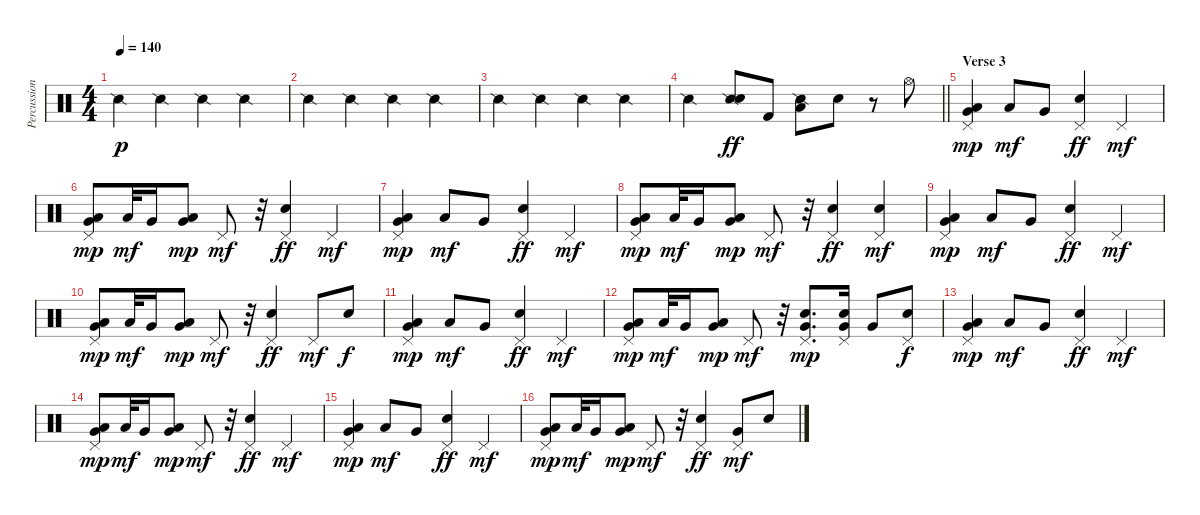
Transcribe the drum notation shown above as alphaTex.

\track ("Percussion" "Percussion") {instrument percussion}
\staff {score}
\articulation defaults
\ts (4 4)
\tempo 140
\clef neutral
\ks c "Snare (side stick) 2".4{dy p} "Snare (side stick) 2".4 "Snare (side stick) 2".4 "Snare (side stick) 2".4
|
"Snare (side stick) 2".4 "Snare (side stick) 2".4 "Snare (side stick) 2".4 "Snare (side stick) 2".4 |
"Snare (side stick) 2".4 "Snare (side stick) 2".4 "Snare (side stick) 2".4 "Snare (side stick) 2".4 |
\barLineRight lightlight "Snare (side stick) 2".4
("Snare (side stick) 2" "Snare (hit) 2").8{dy ff} "Kick (hit) 2".8 ("Snare (side stick) 2" "Low Floor Tom (hit)").8 "Snare (hit) 2".8 r.8 "Hi-Hat (open)".8 |
\section ("" "Verse 3")
("Pedal Hi-Hat (hit)" "Very Low Tom (hit)" "Low Floor Tom (hit)").4{dy mp} "Low Floor Tom (hit)".8{dy mf} "Very Low Tom (hit)".8 ("Pedal Hi-Hat (hit)" "Snare (hit) 2").4{dy ff} "Pedal Hi-Hat (hit)".4{dy mf} |
("Pedal Hi-Hat (hit)" "Very Low Tom (hit)" "Low Floor Tom (hit)").8{dy mp} "Low Floor Tom (hit)".32{dy mf} "Very Low Tom (hit)".16 ("Very Low Tom (hit)" "Low Floor Tom (hit)").8{dy mp} "Pedal Hi-Hat (hit)".8{dy mf} r.32 ("Pedal Hi-Hat (hit)" "Snare (hit) 2").4{dy ff} "Pedal Hi-Hat (hit)".4{dy mf} |
("Pedal Hi-Hat (hit)" "Very Low Tom (hit)" "Low Floor Tom (hit)").4{dy mp} "Low Floor Tom (hit)".8{dy mf} "Very Low Tom (hit)".8 ("Pedal Hi-Hat (hit)" "Snare (hit) 2").4{dy ff} "Pedal Hi-Hat (hit)".4{dy mf} |
("Pedal Hi-Hat (hit)" "Very Low Tom (hit)" "Low Floor Tom (hit)").8{dy mp} "Low Floor Tom (hit)".32{dy mf} "Very Low Tom (hit)".16 ("Very Low Tom (hit)" "Low Floor Tom (hit)").8{dy mp} "Pedal Hi-Hat (hit)".8{dy mf} r.32 ("Pedal Hi-Hat (hit)" "Snare (hit) 2").4{dy ff} ("Pedal Hi-Hat (hit)" "Snare (hit) 2").4{dy mf} |
("Pedal Hi-Hat (hit)" "Very Low Tom (hit)" "Low Floor Tom (hit)").4{dy mp} "Low Floor Tom (hit)".8{dy mf} "Very Low Tom (hit)".8 ("Pedal Hi-Hat (hit)" "Snare (hit) 2").4{dy ff} "Pedal Hi-Hat (hit)".4{dy mf} |
("Pedal Hi-Hat (hit)" "Very Low Tom (hit)" "Low Floor Tom (hit)").8{dy mp} "Low Floor Tom (hit)".32{dy mf} "Very Low Tom (hit)".16 ("Very Low Tom (hit)" "Low Floor Tom (hit)").8{dy mp} "Pedal Hi-Hat (hit)".8{dy mf} r.32 ("Pedal Hi-Hat (hit)" "Snare (hit) 2").4{dy ff} "Pedal Hi-Hat (hit)".8{dy mf} "Snare (hit) 2".8{dy f} |
("Pedal Hi-Hat (hit)" "Very Low Tom (hit)" "Low Floor Tom (hit)").4{dy mp} "Low Floor Tom (hit)".8{dy mf} "Very Low Tom (hit)".8 ("Pedal Hi-Hat (hit)" "Snare (hit) 2").4{dy ff} "Pedal Hi-Hat (hit)".4{dy mf} |
("Pedal Hi-Hat (hit)" "Very Low Tom (hit)" "Low Floor Tom (hit)").8{dy mp} "Low Floor Tom (hit)".32{dy mf} "Very Low Tom (hit)".16 ("Very Low Tom (hit)" "Low Floor Tom (hit)").8{dy mp} "Pedal Hi-Hat (hit)".8{dy mf} r.32 ("Pedal Hi-Hat (hit)" "Snare (hit) 2" "Very Low Tom (hit)").8{d dy mp} ("Pedal Hi-Hat (hit)" "Snare (hit) 2" "Very Low Tom (hit)").16 "Very Low Tom (hit)".8 ("Pedal Hi-Hat (hit)" "Snare (hit) 2").8{dy f} |
("Pedal Hi-Hat (hit)" "Very Low Tom (hit)" "Low Floor Tom (hit)").4{dy mp} "Low Floor Tom (hit)".8{dy mf} "Very Low Tom (hit)".8 ("Pedal Hi-Hat (hit)" "Snare (hit) 2").4{dy ff} "Pedal Hi-Hat (hit)".4{dy mf} |
("Pedal Hi-Hat (hit)" "Very Low Tom (hit)" "Low Floor Tom (hit)").8{dy mp} "Low Floor Tom (hit)".32{dy mf} "Very Low Tom (hit)".16 ("Very Low Tom (hit)" "Low Floor Tom (hit)").8{dy mp} "Pedal Hi-Hat (hit)".8{dy mf} r.32 ("Pedal Hi-Hat (hit)" "Snare (hit) 2").4{dy ff} "Pedal Hi-Hat (hit)".4{dy mf} |
("Pedal Hi-Hat (hit)" "Very Low Tom (hit)" "Low Floor Tom (hit)").4{dy mp} "Low Floor Tom (hit)".8{dy mf} "Very Low Tom (hit)".8 ("Pedal Hi-Hat (hit)" "Snare (hit) 2").4{dy ff} "Pedal Hi-Hat (hit)".4{dy mf} |
("Pedal Hi-Hat (hit)" "Very Low Tom (hit)" "Low Floor Tom (hit)").8{dy mp} "Low Floor Tom (hit)".32{dy mf} "Very Low Tom (hit)".16 ("Very Low Tom (hit)" "Low Floor Tom (hit)").8{dy mp} "Pedal Hi-Hat (hit)".8{dy mf} r.32 ("Pedal Hi-Hat (hit)" "Snare (hit) 2").4{dy ff} ("Pedal Hi-Hat (hit)" "Very Low Tom (hit)").8{dy mf} "Snare (hit) 2".8
